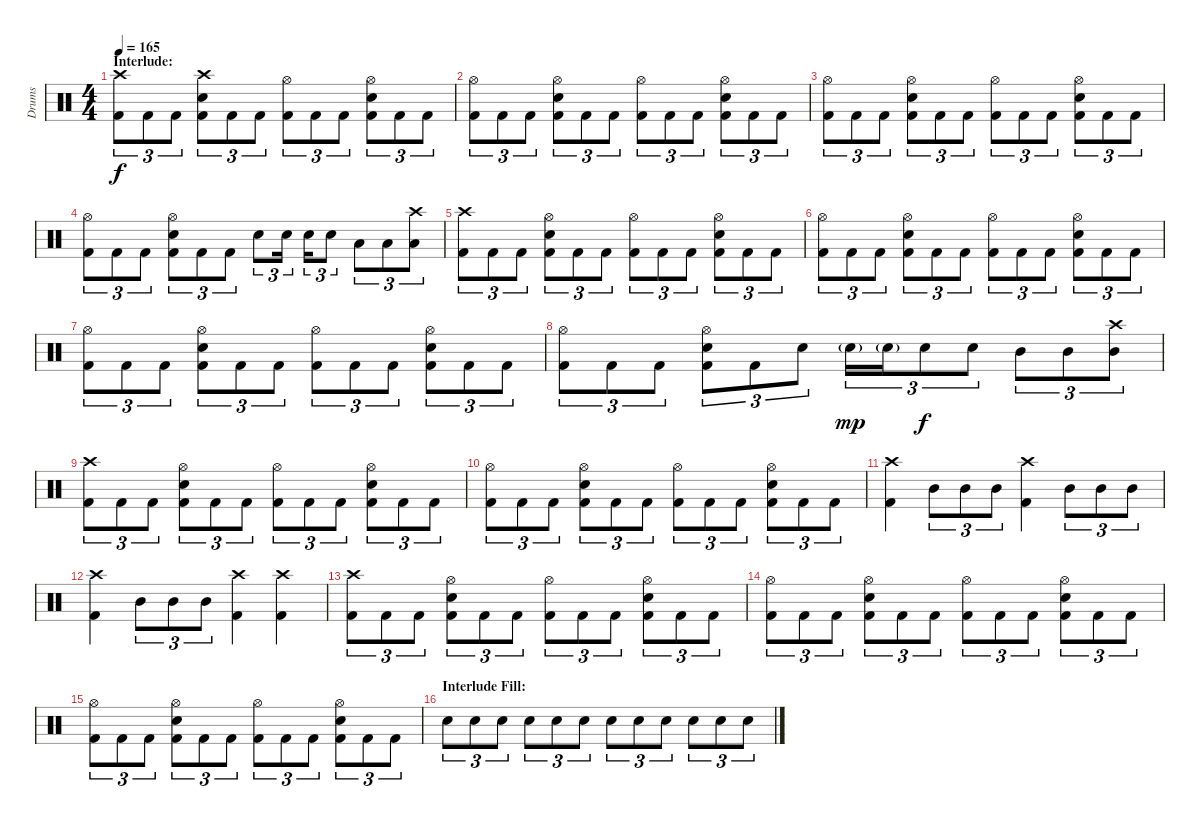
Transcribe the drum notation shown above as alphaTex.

\track ("Drums" "Drums") {instrument percussion}
\staff {score}
\articulation defaults
\ts (4 4)
\section ("" "Interlude:")
\tempo 165
\clef neutral
\ks c
("Crash high (hit)" "Kick (hit) 2").8{tu (3 2) dy f} "Kick (hit) 2".8{tu (3 2)} "Kick (hit) 2".8{tu (3 2)} ("Crash high (hit)" "Electric Snare (hit)" "Kick (hit) 2").8{tu (3 2)} "Kick (hit) 2".8{tu (3 2)} "Kick (hit) 2".8{tu (3 2)} ("Hi-Hat (open)" "Kick (hit) 2").8{tu (3 2)} "Kick (hit) 2".8{tu (3 2)} "Kick (hit) 2".8{tu (3 2)} ("Hi-Hat (open)" "Electric Snare (hit)" "Kick (hit) 2").8{tu (3 2)} "Kick (hit) 2".8{tu (3 2)} "Kick (hit) 2".8{tu (3 2)} |
("Hi-Hat (open)" "Kick (hit) 2").8{tu (3 2)} "Kick (hit) 2".8{tu (3 2)} "Kick (hit) 2".8{tu (3 2)} ("Hi-Hat (open)" "Electric Snare (hit)" "Kick (hit) 2").8{tu (3 2)} "Kick (hit) 2".8{tu (3 2)} "Kick (hit) 2".8{tu (3 2)} ("Hi-Hat (open)" "Kick (hit) 2").8{tu (3 2)} "Kick (hit) 2".8{tu (3 2)} "Kick (hit) 2".8{tu (3 2)} ("Hi-Hat (open)" "Electric Snare (hit)" "Kick (hit) 2").8{tu (3 2)} "Kick (hit) 2".8{tu (3 2)} "Kick (hit) 2".8{tu (3 2)} |
("Hi-Hat (open)" "Kick (hit) 2").8{tu (3 2)} "Kick (hit) 2".8{tu (3 2)} "Kick (hit) 2".8{tu (3 2)} ("Hi-Hat (open)" "Electric Snare (hit)" "Kick (hit) 2").8{tu (3 2)} "Kick (hit) 2".8{tu (3 2)} "Kick (hit) 2".8{tu (3 2)} ("Hi-Hat (open)" "Kick (hit) 2").8{tu (3 2)} "Kick (hit) 2".8{tu (3 2)} "Kick (hit) 2".8{tu (3 2)} ("Hi-Hat (open)" "Electric Snare (hit)" "Kick (hit) 2").8{tu (3 2)} "Kick (hit) 2".8{tu (3 2)} "Kick (hit) 2".8{tu (3 2)} |
("Hi-Hat (open)" "Kick (hit) 2").8{tu (3 2)} "Kick (hit) 2".8{tu (3 2)} "Kick (hit) 2".8{tu (3 2)} ("Hi-Hat (open)" "Electric Snare (hit)" "Kick (hit) 2").8{tu (3 2)} "Kick (hit) 2".8{tu (3 2)} "Kick (hit) 2".8{tu (3 2)} "Electric Snare (hit)".8{tu (3 2)} "Electric Snare (hit)".16{tu (3 2)} "Electric Snare (hit)".16{tu (3 2)} "Electric Snare (hit)".8{tu (3 2)} "Low Tom (hit)".8{tu (3 2)} "Low Tom (hit)".8{tu (3 2)} ("Crash high (hit)" "Low Tom (hit)").8{tu (3 2)} |
("Crash high (hit)" "Kick (hit) 2").8{tu (3 2)} "Kick (hit) 2".8{tu (3 2)} "Kick (hit) 2".8{tu (3 2)} ("Hi-Hat (open)" "Electric Snare (hit)" "Kick (hit) 2").8{tu (3 2)} "Kick (hit) 2".8{tu (3 2)} "Kick (hit) 2".8{tu (3 2)} ("Hi-Hat (open)" "Kick (hit) 2").8{tu (3 2)} "Kick (hit) 2".8{tu (3 2)} "Kick (hit) 2".8{tu (3 2)} ("Hi-Hat (open)" "Electric Snare (hit)" "Kick (hit) 2").8{tu (3 2)} "Kick (hit) 2".8{tu (3 2)} "Kick (hit) 2".8{tu (3 2)} |
("Hi-Hat (open)" "Kick (hit) 2").8{tu (3 2)} "Kick (hit) 2".8{tu (3 2)} "Kick (hit) 2".8{tu (3 2)} ("Hi-Hat (open)" "Electric Snare (hit)" "Kick (hit) 2").8{tu (3 2)} "Kick (hit) 2".8{tu (3 2)} "Kick (hit) 2".8{tu (3 2)} ("Hi-Hat (open)" "Kick (hit) 2").8{tu (3 2)} "Kick (hit) 2".8{tu (3 2)} "Kick (hit) 2".8{tu (3 2)} ("Hi-Hat (open)" "Electric Snare (hit)" "Kick (hit) 2").8{tu (3 2)} "Kick (hit) 2".8{tu (3 2)} "Kick (hit) 2".8{tu (3 2)} |
("Hi-Hat (open)" "Kick (hit) 2").8{tu (3 2)} "Kick (hit) 2".8{tu (3 2)} "Kick (hit) 2".8{tu (3 2)} ("Hi-Hat (open)" "Electric Snare (hit)" "Kick (hit) 2").8{tu (3 2)} "Kick (hit) 2".8{tu (3 2)} "Kick (hit) 2".8{tu (3 2)} ("Hi-Hat (open)" "Kick (hit) 2").8{tu (3 2)} "Kick (hit) 2".8{tu (3 2)} "Kick (hit) 2".8{tu (3 2)} ("Hi-Hat (open)" "Electric Snare (hit)" "Kick (hit) 2").8{tu (3 2)} "Kick (hit) 2".8{tu (3 2)} "Kick (hit) 2".8{tu (3 2)} |
("Hi-Hat (open)" "Kick (hit) 2").8{tu (3 2)} "Kick (hit) 2".8{tu (3 2)} "Kick (hit) 2".8{tu (3 2)} ("Hi-Hat (open)" "Electric Snare (hit)" "Kick (hit) 2").8{tu (3 2)} "Kick (hit) 2".8{tu (3 2)} "Electric Snare (hit)".8{tu (3 2)} "Electric Snare (hit)"{g}.16{tu (3 2) dy mp} "Electric Snare (hit)"{g}.16{tu (3 2)} "Electric Snare (hit)".8{tu (3 2) dy f} "Electric Snare (hit)".8{tu (3 2)} "Mid Tom (hit)".8{tu (3 2)} "Mid Tom (hit)".8{tu (3 2)} ("Crash high (hit)" "Mid Tom (hit)").8{tu (3 2)} |
("Crash high (hit)" "Kick (hit) 2").8{tu (3 2)} "Kick (hit) 2".8{tu (3 2)} "Kick (hit) 2".8{tu (3 2)} ("Hi-Hat (open)" "Electric Snare (hit)" "Kick (hit) 2").8{tu (3 2)} "Kick (hit) 2".8{tu (3 2)} "Kick (hit) 2".8{tu (3 2)} ("Hi-Hat (open)" "Kick (hit) 2").8{tu (3 2)} "Kick (hit) 2".8{tu (3 2)} "Kick (hit) 2".8{tu (3 2)} ("Hi-Hat (open)" "Electric Snare (hit)" "Kick (hit) 2").8{tu (3 2)} "Kick (hit) 2".8{tu (3 2)} "Kick (hit) 2".8{tu (3 2)} |
("Hi-Hat (open)" "Kick (hit) 2").8{tu (3 2)} "Kick (hit) 2".8{tu (3 2)} "Kick (hit) 2".8{tu (3 2)} ("Hi-Hat (open)" "Electric Snare (hit)" "Kick (hit) 2").8{tu (3 2)} "Kick (hit) 2".8{tu (3 2)} "Kick (hit) 2".8{tu (3 2)} ("Hi-Hat (open)" "Kick (hit) 2").8{tu (3 2)} "Kick (hit) 2".8{tu (3 2)} "Kick (hit) 2".8{tu (3 2)} ("Hi-Hat (open)" "Electric Snare (hit)" "Kick (hit) 2").8{tu (3 2)} "Kick (hit) 2".8{tu (3 2)} "Kick (hit) 2".8{tu (3 2)} |
("Crash high (hit)" "Kick (hit) 2").4 "Mid Tom (hit)".8{tu (3 2)} "Mid Tom (hit)".8{tu (3 2)} "Mid Tom (hit)".8{tu (3 2)} ("Crash high (hit)" "Kick (hit) 2").4 "Mid Tom (hit)".8{tu (3 2)} "Mid Tom (hit)".8{tu (3 2)} "Mid Tom (hit)".8{tu (3 2)} |
("Crash high (hit)" "Kick (hit) 2").4 "Mid Tom (hit)".8{tu (3 2)} "Mid Tom (hit)".8{tu (3 2)} "Mid Tom (hit)".8{tu (3 2)} ("Crash high (hit)" "Kick (hit) 2").4 ("Crash high (hit)" "Kick (hit) 2").4 |
("Crash high (hit)" "Kick (hit) 2").8{tu (3 2)} "Kick (hit) 2".8{tu (3 2)} "Kick (hit) 2".8{tu (3 2)} ("Hi-Hat (open)" "Electric Snare (hit)" "Kick (hit) 2").8{tu (3 2)} "Kick (hit) 2".8{tu (3 2)} "Kick (hit) 2".8{tu (3 2)} ("Hi-Hat (open)" "Kick (hit) 2").8{tu (3 2)} "Kick (hit) 2".8{tu (3 2)} "Kick (hit) 2".8{tu (3 2)} ("Hi-Hat (open)" "Electric Snare (hit)" "Kick (hit) 2").8{tu (3 2)} "Kick (hit) 2".8{tu (3 2)} "Kick (hit) 2".8{tu (3 2)} |
("Hi-Hat (open)" "Kick (hit) 2").8{tu (3 2)} "Kick (hit) 2".8{tu (3 2)} "Kick (hit) 2".8{tu (3 2)} ("Hi-Hat (open)" "Electric Snare (hit)" "Kick (hit) 2").8{tu (3 2)} "Kick (hit) 2".8{tu (3 2)} "Kick (hit) 2".8{tu (3 2)} ("Hi-Hat (open)" "Kick (hit) 2").8{tu (3 2)} "Kick (hit) 2".8{tu (3 2)} "Kick (hit) 2".8{tu (3 2)} ("Hi-Hat (open)" "Electric Snare (hit)" "Kick (hit) 2").8{tu (3 2)} "Kick (hit) 2".8{tu (3 2)} "Kick (hit) 2".8{tu (3 2)} |
("Hi-Hat (open)" "Kick (hit) 2").8{tu (3 2)} "Kick (hit) 2".8{tu (3 2)} "Kick (hit) 2".8{tu (3 2)} ("Hi-Hat (open)" "Electric Snare (hit)" "Kick (hit) 2").8{tu (3 2)} "Kick (hit) 2".8{tu (3 2)} "Kick (hit) 2".8{tu (3 2)} ("Hi-Hat (open)" "Kick (hit) 2").8{tu (3 2)} "Kick (hit) 2".8{tu (3 2)} "Kick (hit) 2".8{tu (3 2)} ("Hi-Hat (open)" "Electric Snare (hit)" "Kick (hit) 2").8{tu (3 2)} "Kick (hit) 2".8{tu (3 2)} "Kick (hit) 2".8{tu (3 2)} |
\section ("" "Interlude Fill:")
"Electric Snare (hit)".8{tu (3 2)} "Electric Snare (hit)".8{tu (3 2)} "Electric Snare (hit)".8{tu (3 2)} "Electric Snare (hit)".8{tu (3 2)} "Electric Snare (hit)".8{tu (3 2)} "Electric Snare (hit)".8{tu (3 2)} "Electric Snare (hit)".8{tu (3 2)} "Electric Snare (hit)".8{tu (3 2)} "Electric Snare (hit)".8{tu (3 2)} "Electric Snare (hit)".8{tu (3 2)} "Electric Snare (hit)".8{tu (3 2)} "Electric Snare (hit)".8{tu (3 2)}
